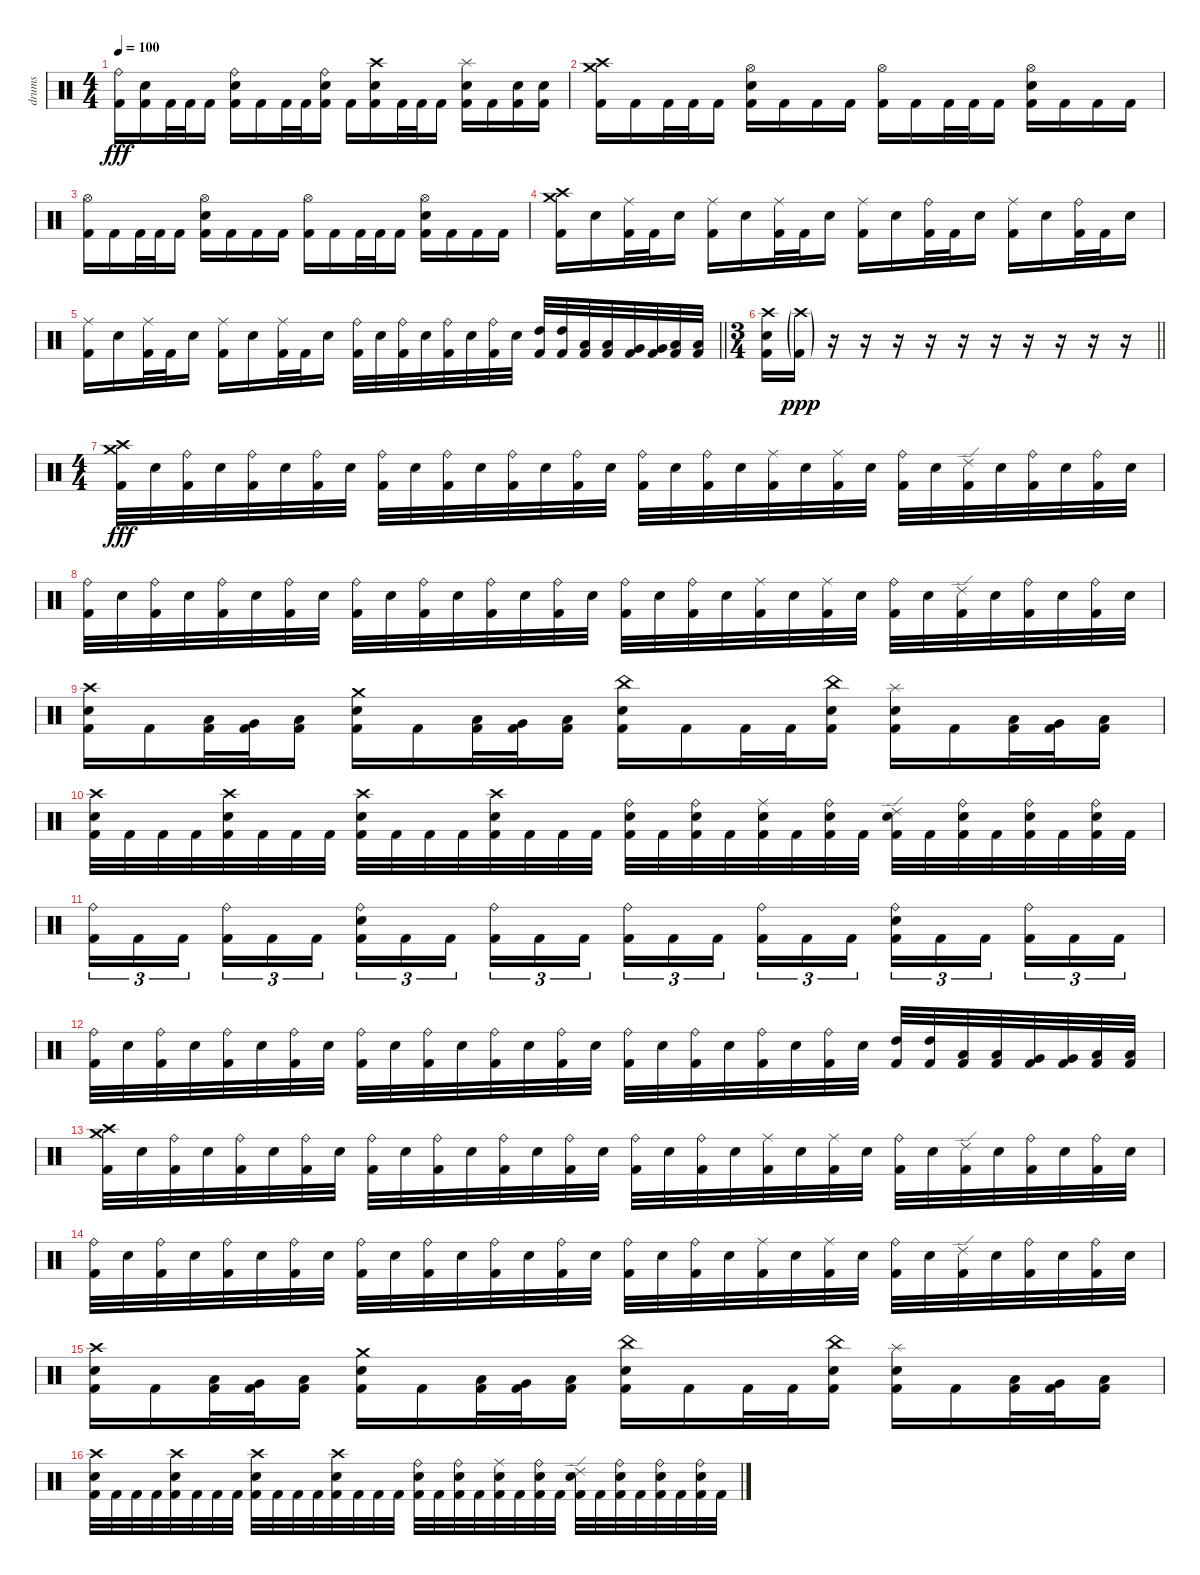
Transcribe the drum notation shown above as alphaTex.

\track ("drums" "drums") {instrument percussion}
\staff {score}
\articulation defaults
\ts (4 4)
\tempo 100
\clef neutral
\ks c
("Ride (bell)" "Kick (hit) 2").16{dy fff} ("Electric Snare (hit)" "Kick (hit) 2").16 "Kick (hit) 2".32 "Kick (hit) 2".32 "Kick (hit) 2".16 ("Ride (bell)" "Electric Snare (hit)" "Kick (hit) 2").16 "Kick (hit) 2".16 "Kick (hit) 2".32 "Kick (hit) 2".32 ("Ride (bell)" "Electric Snare (hit)" "Kick (hit) 2").16 "Kick (hit) 2".16 ("Crash high (hit)" "Electric Snare (hit)" "Kick (hit) 2").16 "Kick (hit) 2".32 "Kick (hit) 2".32 "Kick (hit) 2".16 ("Splash (hit)" "Electric Snare (hit)" "Kick (hit) 2").16 "Kick (hit) 2".16 ("Electric Snare (hit)" "Kick (hit) 2").16 ("Electric Snare (hit)" "Kick (hit) 2").16 |
("Crash high (hit)" "Crash medium (hit)" "Kick (hit) 2").16 "Kick (hit) 2".16 "Kick (hit) 2".32 "Kick (hit) 2".32 "Kick (hit) 2".16 ("Hi-Hat (open)" "Electric Snare (hit)" "Kick (hit) 2").16 "Kick (hit) 2".16 "Kick (hit) 2".16 "Kick (hit) 2".16 ("Hi-Hat (open)" "Kick (hit) 2").16 "Kick (hit) 2".16 "Kick (hit) 2".32 "Kick (hit) 2".32 "Kick (hit) 2".16 ("Hi-Hat (open)" "Electric Snare (hit)" "Kick (hit) 2").16 "Kick (hit) 2".16 "Kick (hit) 2".16 "Kick (hit) 2".16 |
("Hi-Hat (open)" "Kick (hit) 2").16 "Kick (hit) 2".16 "Kick (hit) 2".32 "Kick (hit) 2".32 "Kick (hit) 2".16 ("Hi-Hat (open)" "Electric Snare (hit)" "Kick (hit) 2").16 "Kick (hit) 2".16 "Kick (hit) 2".16 "Kick (hit) 2".16 ("Hi-Hat (open)" "Kick (hit) 2").16 "Kick (hit) 2".16 "Kick (hit) 2".32 "Kick (hit) 2".32 "Kick (hit) 2".16 ("Hi-Hat (open)" "Electric Snare (hit)" "Kick (hit) 2").16 "Kick (hit) 2".16 "Kick (hit) 2".16 "Kick (hit) 2".16 |
("Crash high (hit)" "Crash medium (hit)" "Kick (hit) 2").16 "Electric Snare (hit)".16 ("Ride (middle)" "Kick (hit) 2").32 "Kick (hit) 2".32 "Electric Snare (hit)".16 ("Ride (middle)" "Kick (hit) 2").16 "Electric Snare (hit)".16 ("Ride (middle)" "Kick (hit) 2").32 "Kick (hit) 2".32 "Electric Snare (hit)".16 ("Ride (middle)" "Kick (hit) 2").16 "Electric Snare (hit)".16 ("Ride (bell)" "Kick (hit) 2").32 "Kick (hit) 2".32 "Electric Snare (hit)".16 ("Ride (middle)" "Kick (hit) 2").16 "Electric Snare (hit)".16 ("Ride (bell)" "Kick (hit) 2").32 "Kick (hit) 2".32 "Electric Snare (hit)".16 |
\barLineRight lightlight
("Ride (middle)" "Kick (hit) 2").16 "Electric Snare (hit)".16 ("Ride (middle)" "Kick (hit) 2").32 "Kick (hit) 2".32 "Electric Snare (hit)".16 ("Ride (middle)" "Kick (hit) 2").16 "Electric Snare (hit)".16 ("Ride (middle)" "Kick (hit) 2").32 "Kick (hit) 2".32 "Electric Snare (hit)".16 ("Ride (bell)" "Kick (hit) 2").32 "Electric Snare (hit)".32 ("Ride (bell)" "Kick (hit) 2").32 "Electric Snare (hit)".32 ("Ride (bell)" "Kick (hit) 2").32 "Electric Snare (hit)".32 ("Ride (bell)" "Kick (hit) 2").32 "Electric Snare (hit)".32 ("High Tom (hit)" "Kick (hit) 2").32 ("High Tom (hit)" "Kick (hit) 2").32 ("Low Tom (hit)" "Kick (hit) 2").32 ("Low Tom (hit)" "Kick (hit) 2").32 ("Very Low Tom (hit)" "Kick (hit) 2").32 ("Very Low Tom (hit)" "Kick (hit) 2").32 ("Low Floor Tom (hit)" "Kick (hit) 2").32 ("Low Floor Tom (hit)" "Kick (hit) 2").32 |
\ts (3 4)
\section ("" "")
\barLineRight lightlight
("Crash high (hit)" "Electric Snare (hit)" "Kick (hit) 2").16 ("Crash high (hit)"{g} "Kick (hit) 2"{g}).16{dy ppp} r.16 r.16 r.16 r.16 r.16 r.16 r.16 r.16 r.16 r.16 |
\ts (4 4)
\section ("" "")
("Crash high (hit)" "Crash medium (hit)" "Kick (hit) 2").32{dy fff} "Electric Snare (hit)".32 ("Ride (bell)" "Kick (hit) 2").32 "Electric Snare (hit)".32 ("Ride (bell)" "Kick (hit) 2").32 "Electric Snare (hit)".32 ("Ride (bell)" "Kick (hit) 2").32 "Electric Snare (hit)".32 ("Ride (bell)" "Kick (hit) 2").32 "Electric Snare (hit)".32 ("Ride (bell)" "Kick (hit) 2").32 "Electric Snare (hit)".32 ("Ride (bell)" "Kick (hit) 2").32 "Electric Snare (hit)".32 ("Ride (bell)" "Kick (hit) 2").32 "Electric Snare (hit)".32 ("Ride (bell)" "Kick (hit) 2").32 "Electric Snare (hit)".32 ("Ride (bell)" "Kick (hit) 2").32 "Electric Snare (hit)".32 ("Ride (middle)" "Kick (hit) 2").32 "Electric Snare (hit)".32 ("Ride (middle)" "Kick (hit) 2").32 "Electric Snare (hit)".32 ("Ride (bell)" "Kick (hit) 2").32 "Electric Snare (hit)".32 ("Ride (edge) 2" "Kick (hit) 2").32 "Electric Snare (hit)".32 ("Ride (bell)" "Kick (hit) 2").32 "Electric Snare (hit)".32 ("Ride (bell)" "Kick (hit) 2").32 "Electric Snare (hit)".32 |
("Ride (bell)" "Kick (hit) 2").32 "Electric Snare (hit)".32 ("Ride (bell)" "Kick (hit) 2").32 "Electric Snare (hit)".32 ("Ride (bell)" "Kick (hit) 2").32 "Electric Snare (hit)".32 ("Ride (bell)" "Kick (hit) 2").32 "Electric Snare (hit)".32 ("Ride (bell)" "Kick (hit) 2").32 "Electric Snare (hit)".32 ("Ride (bell)" "Kick (hit) 2").32 "Electric Snare (hit)".32 ("Ride (bell)" "Kick (hit) 2").32 "Electric Snare (hit)".32 ("Ride (bell)" "Kick (hit) 2").32 "Electric Snare (hit)".32 ("Ride (bell)" "Kick (hit) 2").32 "Electric Snare (hit)".32 ("Ride (bell)" "Kick (hit) 2").32 "Electric Snare (hit)".32 ("Ride (middle)" "Kick (hit) 2").32 "Electric Snare (hit)".32 ("Ride (middle)" "Kick (hit) 2").32 "Electric Snare (hit)".32 ("Ride (bell)" "Kick (hit) 2").32 "Electric Snare (hit)".32 ("Ride (edge) 2" "Kick (hit) 2").32 "Electric Snare (hit)".32 ("Ride (bell)" "Kick (hit) 2").32 "Electric Snare (hit)".32 ("Ride (bell)" "Kick (hit) 2").32 "Electric Snare (hit)".32 |
("Crash high (hit)" "Electric Snare (hit)" "Kick (hit) 2").16 "Kick (hit) 2".16 ("Low Tom (hit)" "Kick (hit) 2").32 ("Very Low Tom (hit)" "Kick (hit) 2").32 ("Low Floor Tom (hit)" "Kick (hit) 2").16 ("Crash medium (hit)" "Electric Snare (hit)" "Kick (hit) 2").16 "Kick (hit) 2".16 ("Low Tom (hit)" "Kick (hit) 2").32 ("Very Low Tom (hit)" "Kick (hit) 2").32 ("Low Floor Tom (hit)" "Kick (hit) 2").16 ("China (hit)" "Electric Snare (hit)" "Kick (hit) 2").16 "Kick (hit) 2".16 "Kick (hit) 2".32 "Kick (hit) 2".32 ("China (hit)" "Electric Snare (hit)" "Kick (hit) 2").16 ("Splash (hit)" "Electric Snare (hit)" "Kick (hit) 2").16 "Kick (hit) 2".16 ("Low Tom (hit)" "Kick (hit) 2").32 ("Very Low Tom (hit)" "Kick (hit) 2").32 ("Low Floor Tom (hit)" "Kick (hit) 2").16 |
("Crash high (hit)" "Electric Snare (hit)" "Kick (hit) 2").32 "Kick (hit) 2".32 "Kick (hit) 2".32 "Kick (hit) 2".32 ("Crash high (hit)" "Electric Snare (hit)" "Kick (hit) 2").32 "Kick (hit) 2".32 "Kick (hit) 2".32 "Kick (hit) 2".32 ("Crash high (hit)" "Electric Snare (hit)" "Kick (hit) 2").32 "Kick (hit) 2".32 "Kick (hit) 2".32 "Kick (hit) 2".32 ("Crash high (hit)" "Electric Snare (hit)" "Kick (hit) 2").32 "Kick (hit) 2".32 "Kick (hit) 2".32 "Kick (hit) 2".32 ("Ride (bell)" "Electric Snare (hit)" "Kick (hit) 2").32 "Kick (hit) 2".32 ("Ride (bell)" "Electric Snare (hit)" "Kick (hit) 2").32 "Kick (hit) 2".32 ("Ride (middle)" "Electric Snare (hit)" "Kick (hit) 2").32 "Kick (hit) 2".32 ("Ride (bell)" "Electric Snare (hit)" "Kick (hit) 2").32 "Kick (hit) 2".32 ("Ride (edge) 2" "Electric Snare (hit)" "Kick (hit) 2").32 "Kick (hit) 2".32 ("Ride (bell)" "Electric Snare (hit)" "Kick (hit) 2").32 "Kick (hit) 2".32 ("Ride (bell)" "Electric Snare (hit)" "Kick (hit) 2").32 "Kick (hit) 2".32 ("Ride (bell)" "Electric Snare (hit)" "Kick (hit) 2").32 "Kick (hit) 2".32 |
("Ride (bell)" "Kick (hit) 2").16{tu (3 2)} "Kick (hit) 2".16{tu (3 2)} "Kick (hit) 2".16{tu (3 2) beam splitsecondary} ("Ride (bell)" "Kick (hit) 2").16{tu (3 2)} "Kick (hit) 2".16{tu (3 2)} "Kick (hit) 2".16{tu (3 2)} ("Ride (bell)" "Electric Snare (hit)" "Kick (hit) 2").16{tu (3 2)} "Kick (hit) 2".16{tu (3 2)} "Kick (hit) 2".16{tu (3 2) beam splitsecondary} ("Ride (bell)" "Kick (hit) 2").16{tu (3 2)} "Kick (hit) 2".16{tu (3 2)} "Kick (hit) 2".16{tu (3 2)} ("Ride (bell)" "Kick (hit) 2").16{tu (3 2)} "Kick (hit) 2".16{tu (3 2)} "Kick (hit) 2".16{tu (3 2) beam splitsecondary} ("Ride (bell)" "Kick (hit) 2").16{tu (3 2)} "Kick (hit) 2".16{tu (3 2)} "Kick (hit) 2".16{tu (3 2)} ("Ride (bell)" "Electric Snare (hit)" "Kick (hit) 2").16{tu (3 2)} "Kick (hit) 2".16{tu (3 2)} "Kick (hit) 2".16{tu (3 2) beam splitsecondary} ("Ride (bell)" "Kick (hit) 2").16{tu (3 2)} "Kick (hit) 2".16{tu (3 2)} "Kick (hit) 2".16{tu (3 2)} |
("Ride (bell)" "Kick (hit) 2").32 "Electric Snare (hit)".32 ("Ride (bell)" "Kick (hit) 2").32 "Electric Snare (hit)".32 ("Ride (bell)" "Kick (hit) 2").32 "Electric Snare (hit)".32 ("Ride (bell)" "Kick (hit) 2").32 "Electric Snare (hit)".32 ("Ride (bell)" "Kick (hit) 2").32 "Electric Snare (hit)".32 ("Ride (bell)" "Kick (hit) 2").32 "Electric Snare (hit)".32 ("Ride (bell)" "Kick (hit) 2").32 "Electric Snare (hit)".32 ("Ride (bell)" "Kick (hit) 2").32 "Electric Snare (hit)".32 ("Ride (bell)" "Kick (hit) 2").32 "Electric Snare (hit)".32 ("Ride (bell)" "Kick (hit) 2").32 "Electric Snare (hit)".32 ("Ride (bell)" "Kick (hit) 2").32 "Electric Snare (hit)".32 ("Ride (bell)" "Kick (hit) 2").32 "Electric Snare (hit)".32 ("High Tom (hit)" "Kick (hit) 2").32 ("High Tom (hit)" "Kick (hit) 2").32 ("Low Tom (hit)" "Kick (hit) 2").32 ("Low Tom (hit)" "Kick (hit) 2").32 ("Very Low Tom (hit)" "Kick (hit) 2").32 ("Very Low Tom (hit)" "Kick (hit) 2").32 ("Low Floor Tom (hit)" "Kick (hit) 2").32 ("Low Floor Tom (hit)" "Kick (hit) 2").32 |
("Crash high (hit)" "Crash medium (hit)" "Kick (hit) 2").32 "Electric Snare (hit)".32 ("Ride (bell)" "Kick (hit) 2").32 "Electric Snare (hit)".32 ("Ride (bell)" "Kick (hit) 2").32 "Electric Snare (hit)".32 ("Ride (bell)" "Kick (hit) 2").32 "Electric Snare (hit)".32 ("Ride (bell)" "Kick (hit) 2").32 "Electric Snare (hit)".32 ("Ride (bell)" "Kick (hit) 2").32 "Electric Snare (hit)".32 ("Ride (bell)" "Kick (hit) 2").32 "Electric Snare (hit)".32 ("Ride (bell)" "Kick (hit) 2").32 "Electric Snare (hit)".32 ("Ride (bell)" "Kick (hit) 2").32 "Electric Snare (hit)".32 ("Ride (bell)" "Kick (hit) 2").32 "Electric Snare (hit)".32 ("Ride (middle)" "Kick (hit) 2").32 "Electric Snare (hit)".32 ("Ride (middle)" "Kick (hit) 2").32 "Electric Snare (hit)".32 ("Ride (bell)" "Kick (hit) 2").32 "Electric Snare (hit)".32 ("Ride (edge) 2" "Kick (hit) 2").32 "Electric Snare (hit)".32 ("Ride (bell)" "Kick (hit) 2").32 "Electric Snare (hit)".32 ("Ride (bell)" "Kick (hit) 2").32 "Electric Snare (hit)".32 |
("Ride (bell)" "Kick (hit) 2").32 "Electric Snare (hit)".32 ("Ride (bell)" "Kick (hit) 2").32 "Electric Snare (hit)".32 ("Ride (bell)" "Kick (hit) 2").32 "Electric Snare (hit)".32 ("Ride (bell)" "Kick (hit) 2").32 "Electric Snare (hit)".32 ("Ride (bell)" "Kick (hit) 2").32 "Electric Snare (hit)".32 ("Ride (bell)" "Kick (hit) 2").32 "Electric Snare (hit)".32 ("Ride (bell)" "Kick (hit) 2").32 "Electric Snare (hit)".32 ("Ride (bell)" "Kick (hit) 2").32 "Electric Snare (hit)".32 ("Ride (bell)" "Kick (hit) 2").32 "Electric Snare (hit)".32 ("Ride (bell)" "Kick (hit) 2").32 "Electric Snare (hit)".32 ("Ride (middle)" "Kick (hit) 2").32 "Electric Snare (hit)".32 ("Ride (middle)" "Kick (hit) 2").32 "Electric Snare (hit)".32 ("Ride (bell)" "Kick (hit) 2").32 "Electric Snare (hit)".32 ("Ride (edge) 2" "Kick (hit) 2").32 "Electric Snare (hit)".32 ("Ride (bell)" "Kick (hit) 2").32 "Electric Snare (hit)".32 ("Ride (bell)" "Kick (hit) 2").32 "Electric Snare (hit)".32 |
("Crash high (hit)" "Electric Snare (hit)" "Kick (hit) 2").16 "Kick (hit) 2".16 ("Low Tom (hit)" "Kick (hit) 2").32 ("Very Low Tom (hit)" "Kick (hit) 2").32 ("Low Floor Tom (hit)" "Kick (hit) 2").16 ("Crash medium (hit)" "Electric Snare (hit)" "Kick (hit) 2").16 "Kick (hit) 2".16 ("Low Tom (hit)" "Kick (hit) 2").32 ("Very Low Tom (hit)" "Kick (hit) 2").32 ("Low Floor Tom (hit)" "Kick (hit) 2").16 ("China (hit)" "Electric Snare (hit)" "Kick (hit) 2").16 "Kick (hit) 2".16 "Kick (hit) 2".32 "Kick (hit) 2".32 ("China (hit)" "Electric Snare (hit)" "Kick (hit) 2").16 ("Splash (hit)" "Electric Snare (hit)" "Kick (hit) 2").16 "Kick (hit) 2".16 ("Low Tom (hit)" "Kick (hit) 2").32 ("Very Low Tom (hit)" "Kick (hit) 2").32 ("Low Floor Tom (hit)" "Kick (hit) 2").16 |
("Crash high (hit)" "Electric Snare (hit)" "Kick (hit) 2").32 "Kick (hit) 2".32 "Kick (hit) 2".32 "Kick (hit) 2".32 ("Crash high (hit)" "Electric Snare (hit)" "Kick (hit) 2").32 "Kick (hit) 2".32 "Kick (hit) 2".32 "Kick (hit) 2".32 ("Crash high (hit)" "Electric Snare (hit)" "Kick (hit) 2").32 "Kick (hit) 2".32 "Kick (hit) 2".32 "Kick (hit) 2".32 ("Crash high (hit)" "Electric Snare (hit)" "Kick (hit) 2").32 "Kick (hit) 2".32 "Kick (hit) 2".32 "Kick (hit) 2".32 ("Ride (bell)" "Electric Snare (hit)" "Kick (hit) 2").32 "Kick (hit) 2".32 ("Ride (bell)" "Electric Snare (hit)" "Kick (hit) 2").32 "Kick (hit) 2".32 ("Ride (middle)" "Electric Snare (hit)" "Kick (hit) 2").32 "Kick (hit) 2".32 ("Ride (bell)" "Electric Snare (hit)" "Kick (hit) 2").32 "Kick (hit) 2".32 ("Ride (edge) 2" "Electric Snare (hit)" "Kick (hit) 2").32 "Kick (hit) 2".32 ("Ride (bell)" "Electric Snare (hit)" "Kick (hit) 2").32 "Kick (hit) 2".32 ("Ride (bell)" "Electric Snare (hit)" "Kick (hit) 2").32 "Kick (hit) 2".32 ("Ride (bell)" "Electric Snare (hit)" "Kick (hit) 2").32 "Kick (hit) 2".32
